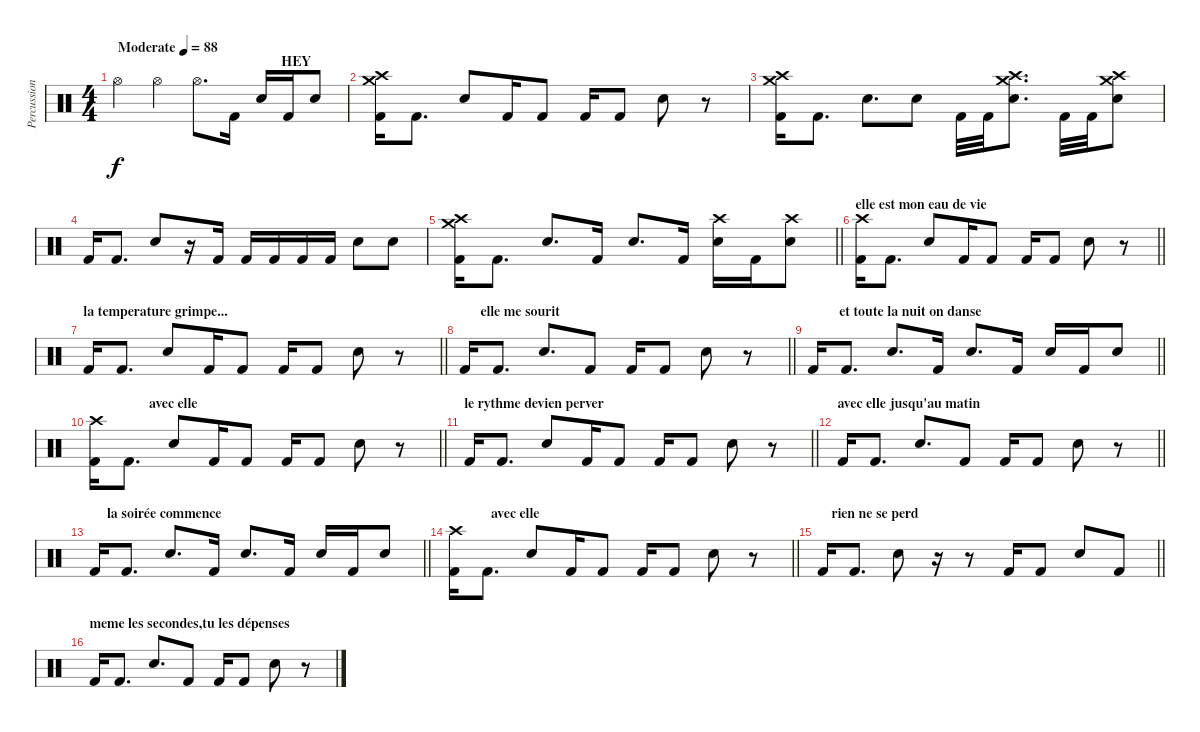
\track ("Percussions" "Percussion") {instrument percussion}
\staff {score}
\articulation defaults
\ts (4 4)
\section ("" "                                                HEY")
\tempo (88 "Moderate")
\clef neutral
\ks c "Hi-Hat (open)".4{dy f} "Hi-Hat (open)".4 "Hi-Hat (open)".8{d} "Kick (hit) 2".16 "Snare (hit) 2".16 "Kick (hit) 2".16 "Snare (hit) 2".8
|
("Crash medium (hit)" "Crash high (hit)" "Kick (hit) 2").16 "Kick (hit) 2".8{d} "Snare (hit) 2".8 "Kick (hit) 2".16 "Kick (hit) 2".8 "Kick (hit) 2".16 "Kick (hit) 2".8 "Snare (hit) 2".8 r.8 |
("Crash medium (hit)" "Crash high (hit)" "Kick (hit) 2").16 "Kick (hit) 2".8{d} "Snare (hit) 2".8{d} "Snare (hit) 2".8 "Kick (hit) 2".32 "Kick (hit) 2".32 ("Crash high (hit)" "Crash medium (hit)" "Snare (hit) 2").8{d} "Kick (hit) 2".32 "Kick (hit) 2".32 ("Crash high (hit)" "Crash medium (hit)" "Snare (hit) 2").8 |
"Kick (hit) 2".16 "Kick (hit) 2".8{d} "Snare (hit) 2".8 r.16 "Kick (hit) 2".16 "Kick (hit) 2".16 "Kick (hit) 2".16 "Kick (hit) 2".16 "Kick (hit) 2".16 "Snare (hit) 2".8 "Snare (hit) 2".8 |
\barLineRight lightlight
("Crash medium (hit)" "Crash high (hit)" "Kick (hit) 2").16 "Kick (hit) 2".8{d} "Snare (hit) 2".8{d} "Kick (hit) 2".16 "Snare (hit) 2".8{d} "Kick (hit) 2".16 ("Crash high (hit)" "Snare (hit) 2").16 "Kick (hit) 2".16 ("Crash high (hit)" "Snare (hit) 2").8 |
\section ("" "elle est mon eau de vie")
\barLineRight lightlight
("Crash high (hit)" "Kick (hit) 2").16 "Kick (hit) 2".8{d} "Snare (hit) 2".8 "Kick (hit) 2".16 "Kick (hit) 2".8 "Kick (hit) 2".16 "Kick (hit) 2".8 "Snare (hit) 2".8 r.8 |
\section ("" "la temperature grimpe...")
\barLineRight lightlight "Kick (hit) 2".16 "Kick (hit) 2".8{d} "Snare (hit) 2".8 "Kick (hit) 2".16 "Kick (hit) 2".8 "Kick (hit) 2".16 "Kick (hit) 2".8 "Snare (hit) 2".8
r.8 |
\section ("" "      elle me sourit")
\barLineRight lightlight "Kick (hit) 2".16 "Kick (hit) 2".8{d} "Snare (hit) 2".8{d} "Kick (hit) 2".8 "Kick (hit) 2".16 "Kick (hit) 2".8 "Snare (hit) 2".8
r.8 |
\section ("" "         et toute la nuit on danse")
\barLineRight lightlight "Kick (hit) 2".16 "Kick (hit) 2".8{d} "Snare (hit) 2".8{d} "Kick (hit) 2".16 "Snare (hit) 2".8{d} "Kick (hit) 2".16 "Snare (hit) 2".16 "Kick (hit) 2".16 "Snare (hit) 2".8
|
\section ("" "                 avec elle")
\barLineRight lightlight
("Crash high (hit)" "Kick (hit) 2").16 "Kick (hit) 2".8{d} "Snare (hit) 2".8 "Kick (hit) 2".16 "Kick (hit) 2".8 "Kick (hit) 2".16 "Kick (hit) 2".8 "Snare (hit) 2".8 r.8 |
\section ("" "le rythme devien perver")
\barLineRight lightlight "Kick (hit) 2".16 "Kick (hit) 2".8{d} "Snare (hit) 2".8 "Kick (hit) 2".16 "Kick (hit) 2".8 "Kick (hit) 2".16 "Kick (hit) 2".8 "Snare (hit) 2".8
r.8 |
\section ("" "avec elle jusqu'au matin")
\barLineRight lightlight "Kick (hit) 2".16 "Kick (hit) 2".8{d} "Snare (hit) 2".8{d} "Kick (hit) 2".8 "Kick (hit) 2".16 "Kick (hit) 2".8 "Snare (hit) 2".8
r.8 |
\section ("" "     la soirée commence")
\barLineRight lightlight "Kick (hit) 2".16 "Kick (hit) 2".8{d} "Snare (hit) 2".8{d} "Kick (hit) 2".16 "Snare (hit) 2".8{d} "Kick (hit) 2".16 "Snare (hit) 2".16 "Kick (hit) 2".16 "Snare (hit) 2".8
|
\section ("" "            avec elle")
\barLineRight lightlight
("Crash high (hit)" "Kick (hit) 2").16 "Kick (hit) 2".8{d} "Snare (hit) 2".8 "Kick (hit) 2".16 "Kick (hit) 2".8 "Kick (hit) 2".16 "Kick (hit) 2".8 "Snare (hit) 2".8 r.8 |
\section ("" "    rien ne se perd")
\barLineRight lightlight "Kick (hit) 2".16 "Kick (hit) 2".8{d} "Snare (hit) 2".8
r.16 r.8 "Kick (hit) 2".16 "Kick (hit) 2".8 "Snare (hit) 2".8 "Kick (hit) 2".8 |
\section ("" "meme les secondes,tu les dépenses")
"Kick (hit) 2".16 "Kick (hit) 2".8{d} "Snare (hit) 2".8{d} "Kick (hit) 2".8 "Kick (hit) 2".16 "Kick (hit) 2".8 "Snare (hit) 2".8 r.8
